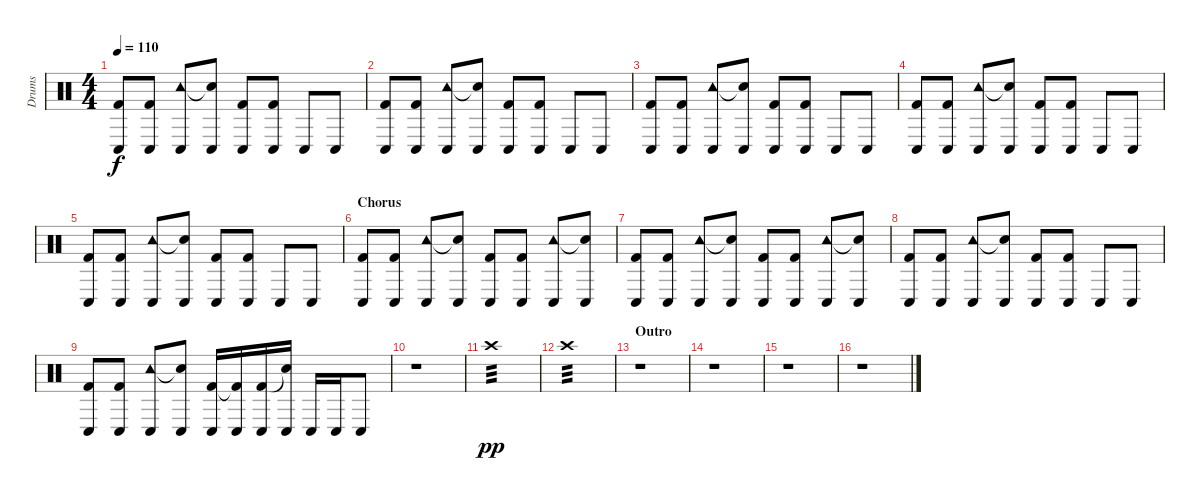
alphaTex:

\track ("Drums" "Drums") {instrument percussion}
\staff {score}
\articulation defaults
\ts (4 4)
\tempo 110
\clef neutral
\ks c
("Conga low (hit)" "Kick (hit) 2").8{dy f} ("Conga low (hit)" "Kick (hit) 2").8 ("Tambourine (hit)" "Conga low (hit)").8 ("Snare (hit)"{t} "Conga low (hit)").8 ("Conga low (hit)" "Kick (hit) 2").8 ("Conga low (hit)" "Kick (hit) 2").8 "Conga low (hit)".8 "Conga low (hit)".8 |
("Conga low (hit)" "Kick (hit) 2").8 ("Conga low (hit)" "Kick (hit) 2").8 ("Tambourine (hit)" "Conga low (hit)").8 ("Snare (hit)"{t} "Conga low (hit)").8 ("Conga low (hit)" "Kick (hit) 2").8 ("Conga low (hit)" "Kick (hit) 2").8 "Conga low (hit)".8 "Conga low (hit)".8 |
("Conga low (hit)" "Kick (hit) 2").8 ("Conga low (hit)" "Kick (hit) 2").8 ("Tambourine (hit)" "Conga low (hit)").8 ("Snare (hit)"{t} "Conga low (hit)").8 ("Conga low (hit)" "Kick (hit) 2").8 ("Conga low (hit)" "Kick (hit) 2").8 "Conga low (hit)".8 "Conga low (hit)".8 |
("Conga low (hit)" "Kick (hit) 2").8 ("Conga low (hit)" "Kick (hit) 2").8 ("Tambourine (hit)" "Conga low (hit)").8 ("Snare (hit)"{t} "Conga low (hit)").8 ("Conga low (hit)" "Kick (hit) 2").8 ("Conga low (hit)" "Kick (hit) 2").8 "Conga low (hit)".8 "Conga low (hit)".8 |
("Conga low (hit)" "Kick (hit) 2").8 ("Conga low (hit)" "Kick (hit) 2").8 ("Tambourine (hit)" "Conga low (hit)").8 ("Snare (hit)"{t} "Conga low (hit)").8 ("Conga low (hit)" "Kick (hit) 2").8 ("Conga low (hit)" "Kick (hit) 2").8 "Conga low (hit)".8 "Conga low (hit)".8 |
\section ("" "Chorus")
("Conga low (hit)" "Kick (hit) 2").8 ("Conga low (hit)" "Kick (hit) 2").8 ("Tambourine (hit)" "Conga low (hit)").8 ("Snare (hit)"{t} "Conga low (hit)").8 ("Conga low (hit)" "Kick (hit) 2").8 ("Conga low (hit)" "Kick (hit) 2").8 ("Tambourine (hit)" "Conga low (hit)").8 ("Snare (hit)"{t} "Conga low (hit)").8 |
("Conga low (hit)" "Kick (hit) 2").8 ("Conga low (hit)" "Kick (hit) 2").8 ("Tambourine (hit)" "Conga low (hit)").8 ("Snare (hit)"{t} "Conga low (hit)").8 ("Conga low (hit)" "Kick (hit) 2").8 ("Conga low (hit)" "Kick (hit) 2").8 ("Tambourine (hit)" "Conga low (hit)").8 ("Snare (hit)"{t} "Conga low (hit)").8 |
("Conga low (hit)" "Kick (hit) 2").8 ("Conga low (hit)" "Kick (hit) 2").8 ("Tambourine (hit)" "Conga low (hit)").8 ("Snare (hit)"{t} "Conga low (hit)").8 ("Conga low (hit)" "Kick (hit) 2").8 ("Conga low (hit)" "Kick (hit) 2").8 "Conga low (hit)".8 "Conga low (hit)".8 |
("Conga low (hit)" "Kick (hit) 2").8 ("Conga low (hit)" "Kick (hit) 2").8 ("Tambourine (hit)" "Conga low (hit)").8 ("Snare (hit)"{t} "Conga low (hit)").8 ("Conga low (hit)" "Kick (hit) 2").16 ("Conga low (hit)" "Kick (hit) 2"{t}).16 ("Conga low (hit)" "Kick (hit) 2").16 ("Conga low (hit)" "Snare (hit)"{t}).16 "Conga low (hit)".16 "Conga low (hit)".16 "Conga low (hit)".8 |
r.1 |
"Crash high (hit)".1{tp 3 dy pp} |
"Crash high (hit)".1{tp 3} |
\section ("" "Outro")
r.1 |
r.1 |
r.1 |
r.1
